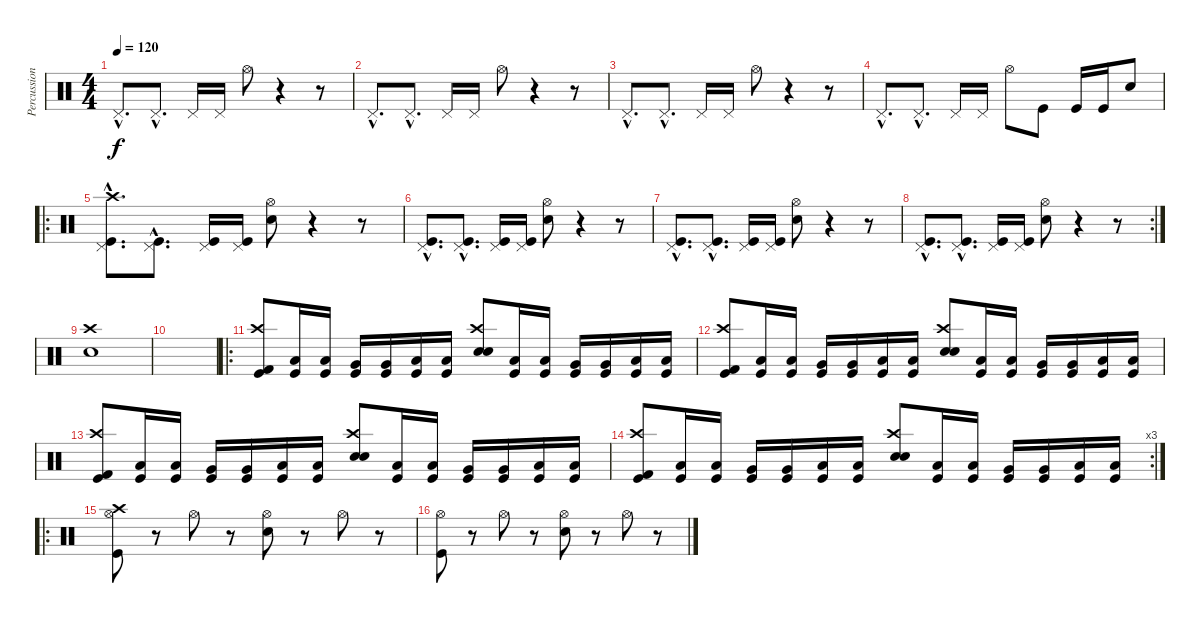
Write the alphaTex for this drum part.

\track ("Percussion" "Percussion") {instrument percussion}
\staff {score}
\articulation defaults
\ts (4 4)
\tempo 120
\clef neutral
\ks c "Pedal Hi-Hat (hit)"{hac}.8{d dy f} "Pedal Hi-Hat (hit)"{hac}.8{d} "Pedal Hi-Hat (hit)".16 "Pedal Hi-Hat (hit)".16 "Hi-Hat (open)".8
r.4 r.8 |
"Pedal Hi-Hat (hit)"{hac}.8{d} "Pedal Hi-Hat (hit)"{hac}.8{d} "Pedal Hi-Hat (hit)".16 "Pedal Hi-Hat (hit)".16 "Hi-Hat (open)".8 r.4 r.8 |
"Pedal Hi-Hat (hit)"{hac}.8{d} "Pedal Hi-Hat (hit)"{hac}.8{d} "Pedal Hi-Hat (hit)".16 "Pedal Hi-Hat (hit)".16 "Hi-Hat (open)".8 r.4 r.8 |
"Pedal Hi-Hat (hit)"{hac}.8{d} "Pedal Hi-Hat (hit)"{hac}.8{d} "Pedal Hi-Hat (hit)".16 "Pedal Hi-Hat (hit)".16 "Hi-Hat (open)".8 "Kick (hit)".8 "Kick (hit)".16 "Kick (hit)".16 "Electric Snare (hit)".8 |
\ro
("Pedal Hi-Hat (hit)"{hac} "Kick (hit)"{hac} "Crash high (hit)"{hac}).8{d} ("Pedal Hi-Hat (hit)"{hac} "Kick (hit)"{hac}).8{d} ("Pedal Hi-Hat (hit)" "Kick (hit)").16 ("Pedal Hi-Hat (hit)" "Kick (hit)").16 ("Hi-Hat (open)" "Electric Snare (hit)").8 r.4 r.8 |
("Pedal Hi-Hat (hit)"{hac} "Kick (hit)"{hac}).8{d} ("Pedal Hi-Hat (hit)"{hac} "Kick (hit)"{hac}).8{d} ("Pedal Hi-Hat (hit)" "Kick (hit)").16 ("Pedal Hi-Hat (hit)" "Kick (hit)").16 ("Hi-Hat (open)" "Electric Snare (hit)").8 r.4 r.8 |
("Pedal Hi-Hat (hit)"{hac} "Kick (hit)"{hac}).8{d} ("Pedal Hi-Hat (hit)"{hac} "Kick (hit)"{hac}).8{d} ("Pedal Hi-Hat (hit)" "Kick (hit)").16 ("Pedal Hi-Hat (hit)" "Kick (hit)").16 ("Hi-Hat (open)" "Electric Snare (hit)").8 r.4 r.8 |
\rc 2
("Pedal Hi-Hat (hit)"{hac} "Kick (hit)"{hac}).8{d} ("Pedal Hi-Hat (hit)"{hac} "Kick (hit)"{hac}).8{d} ("Pedal Hi-Hat (hit)" "Kick (hit)").16 ("Pedal Hi-Hat (hit)" "Kick (hit)").16 ("Hi-Hat (open)" "Electric Snare (hit)").8 r.4 r.8 |
("Electric Snare (hit)" "Crash high (hit)").1 |
|
\ro
("Kick (hit)" "Crash high (hit)" "Kick (hit) 2").8 ("Kick (hit)" "Low Tom (hit)").16 ("Kick (hit)" "Low Tom (hit)").16 ("Kick (hit)" "Very Low Tom (hit)").16 ("Kick (hit)" "Very Low Tom (hit)").16 ("Kick (hit)" "Low Floor Tom (hit)").16 ("Kick (hit)" "Low Floor Tom (hit)").16 ("Electric Snare (hit)" "Crash high (hit)" "Snare (hit) 2").8 ("Kick (hit)" "Low Tom (hit)").16 ("Kick (hit)" "Low Tom (hit)").16 ("Kick (hit)" "Very Low Tom (hit)").16 ("Kick (hit)" "Very Low Tom (hit)").16 ("Kick (hit)" "Low Floor Tom (hit)").16 ("Kick (hit)" "Low Floor Tom (hit)").16 |
("Kick (hit)" "Crash high (hit)" "Kick (hit) 2").8 ("Kick (hit)" "Low Tom (hit)").16 ("Kick (hit)" "Low Tom (hit)").16 ("Kick (hit)" "Very Low Tom (hit)").16 ("Kick (hit)" "Very Low Tom (hit)").16 ("Kick (hit)" "Low Floor Tom (hit)").16 ("Kick (hit)" "Low Floor Tom (hit)").16 ("Electric Snare (hit)" "Crash high (hit)" "Snare (hit) 2").8 ("Kick (hit)" "Low Tom (hit)").16 ("Kick (hit)" "Low Tom (hit)").16 ("Kick (hit)" "Very Low Tom (hit)").16 ("Kick (hit)" "Very Low Tom (hit)").16 ("Kick (hit)" "Low Floor Tom (hit)").16 ("Kick (hit)" "Low Floor Tom (hit)").16 |
("Kick (hit)" "Crash high (hit)" "Kick (hit) 2").8 ("Kick (hit)" "Low Tom (hit)").16 ("Kick (hit)" "Low Tom (hit)").16 ("Kick (hit)" "Very Low Tom (hit)").16 ("Kick (hit)" "Very Low Tom (hit)").16 ("Kick (hit)" "Low Floor Tom (hit)").16 ("Kick (hit)" "Low Floor Tom (hit)").16 ("Electric Snare (hit)" "Crash high (hit)" "Snare (hit) 2").8 ("Kick (hit)" "Low Tom (hit)").16 ("Kick (hit)" "Low Tom (hit)").16 ("Kick (hit)" "Very Low Tom (hit)").16 ("Kick (hit)" "Very Low Tom (hit)").16 ("Kick (hit)" "Low Floor Tom (hit)").16 ("Kick (hit)" "Low Floor Tom (hit)").16 |
\rc 3
("Kick (hit)" "Crash high (hit)" "Kick (hit) 2").8 ("Kick (hit)" "Low Tom (hit)").16 ("Kick (hit)" "Low Tom (hit)").16 ("Kick (hit)" "Very Low Tom (hit)").16 ("Kick (hit)" "Very Low Tom (hit)").16 ("Kick (hit)" "Low Floor Tom (hit)").16 ("Kick (hit)" "Low Floor Tom (hit)").16 ("Electric Snare (hit)" "Crash high (hit)" "Snare (hit) 2").8 ("Kick (hit)" "Low Tom (hit)").16 ("Kick (hit)" "Low Tom (hit)").16 ("Kick (hit)" "Very Low Tom (hit)").16 ("Kick (hit)" "Very Low Tom (hit)").16 ("Kick (hit)" "Low Floor Tom (hit)").16 ("Kick (hit)" "Low Floor Tom (hit)").16 |
\ro
("Kick (hit)" "Hi-Hat (open)" "Crash high (hit)").8 r.8 "Hi-Hat (open)".8 r.8 ("Electric Snare (hit)" "Hi-Hat (open)").8 r.8 "Hi-Hat (open)".8 r.8 |
("Kick (hit)" "Hi-Hat (open)").8 r.8 "Hi-Hat (open)".8 r.8 ("Electric Snare (hit)" "Hi-Hat (open)").8 r.8 "Hi-Hat (open)".8 r.8
